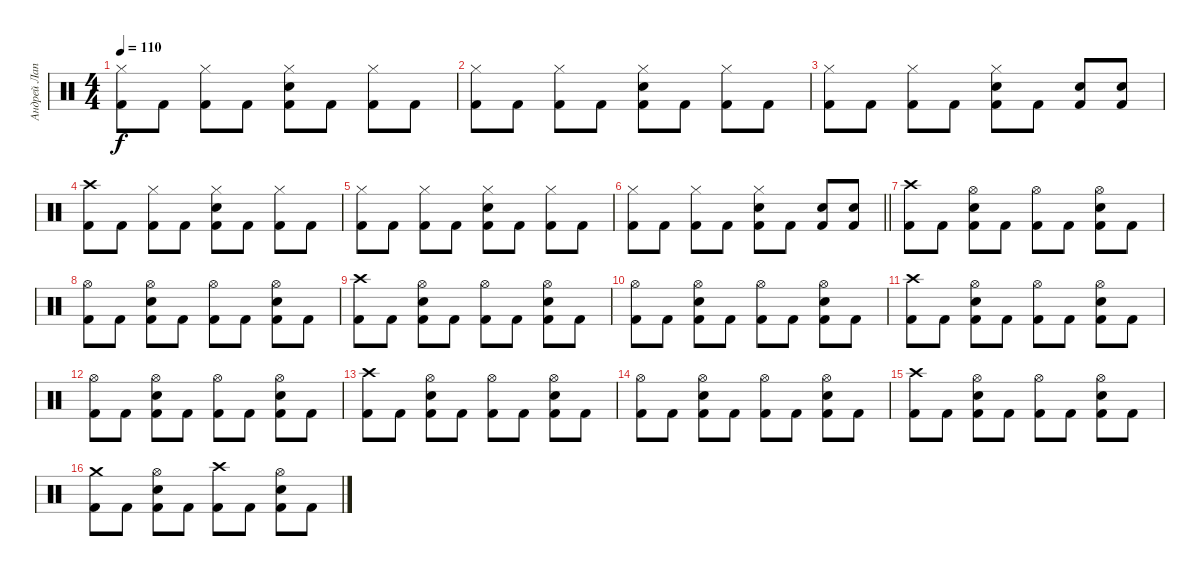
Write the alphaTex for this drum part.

\track ("Андрей Лаптев" "Андрей Лап") {instrument percussion}
\staff {score}
\articulation defaults
\ts (4 4)
\tempo 110
\clef neutral
\ks c
("Hi-Hat (closed)" "Kick (hit) 2").8{dy f} "Kick (hit) 2".8 ("Hi-Hat (closed)" "Kick (hit) 2").8 "Kick (hit) 2".8 ("Hi-Hat (closed)" "Electric Snare (hit)" "Kick (hit) 2").8 "Kick (hit) 2".8 ("Hi-Hat (closed)" "Kick (hit) 2").8 "Kick (hit) 2".8 |
("Hi-Hat (closed)" "Kick (hit) 2").8 "Kick (hit) 2".8 ("Hi-Hat (closed)" "Kick (hit) 2").8 "Kick (hit) 2".8 ("Hi-Hat (closed)" "Electric Snare (hit)" "Kick (hit) 2").8 "Kick (hit) 2".8 ("Hi-Hat (closed)" "Kick (hit) 2").8 "Kick (hit) 2".8 |
("Hi-Hat (closed)" "Kick (hit) 2").8 "Kick (hit) 2".8 ("Hi-Hat (closed)" "Kick (hit) 2").8 "Kick (hit) 2".8 ("Hi-Hat (closed)" "Electric Snare (hit)" "Kick (hit) 2").8 "Kick (hit) 2".8 ("Electric Snare (hit)" "Kick (hit) 2").8 ("Electric Snare (hit)" "Kick (hit) 2").8 |
("Crash high (hit)" "Kick (hit) 2").8 "Kick (hit) 2".8 ("Hi-Hat (closed)" "Kick (hit) 2").8 "Kick (hit) 2".8 ("Hi-Hat (closed)" "Electric Snare (hit)" "Kick (hit) 2").8 "Kick (hit) 2".8 ("Hi-Hat (closed)" "Kick (hit) 2").8 "Kick (hit) 2".8 |
("Hi-Hat (closed)" "Kick (hit) 2").8 "Kick (hit) 2".8 ("Hi-Hat (closed)" "Kick (hit) 2").8 "Kick (hit) 2".8 ("Hi-Hat (closed)" "Electric Snare (hit)" "Kick (hit) 2").8 "Kick (hit) 2".8 ("Hi-Hat (closed)" "Kick (hit) 2").8 "Kick (hit) 2".8 |
\barLineRight lightlight
("Hi-Hat (closed)" "Kick (hit) 2").8 "Kick (hit) 2".8 ("Hi-Hat (closed)" "Kick (hit) 2").8 "Kick (hit) 2".8 ("Hi-Hat (closed)" "Electric Snare (hit)" "Kick (hit) 2").8 "Kick (hit) 2".8 ("Electric Snare (hit)" "Kick (hit) 2").8 ("Electric Snare (hit)" "Kick (hit) 2").8 |
\section ("" "")
("Crash high (hit)" "Kick (hit) 2").8 "Kick (hit) 2".8 ("Hi-Hat (open)" "Electric Snare (hit)" "Kick (hit) 2").8 "Kick (hit) 2".8 ("Hi-Hat (open)" "Kick (hit) 2").8 "Kick (hit) 2".8 ("Hi-Hat (open)" "Electric Snare (hit)" "Kick (hit) 2").8 "Kick (hit) 2".8 |
("Hi-Hat (open)" "Kick (hit) 2").8 "Kick (hit) 2".8 ("Hi-Hat (open)" "Electric Snare (hit)" "Kick (hit) 2").8 "Kick (hit) 2".8 ("Hi-Hat (open)" "Kick (hit) 2").8 "Kick (hit) 2".8 ("Hi-Hat (open)" "Electric Snare (hit)" "Kick (hit) 2").8 "Kick (hit) 2".8 |
("Crash high (hit)" "Kick (hit) 2").8 "Kick (hit) 2".8 ("Hi-Hat (open)" "Electric Snare (hit)" "Kick (hit) 2").8 "Kick (hit) 2".8 ("Hi-Hat (open)" "Kick (hit) 2").8 "Kick (hit) 2".8 ("Hi-Hat (open)" "Electric Snare (hit)" "Kick (hit) 2").8 "Kick (hit) 2".8 |
("Hi-Hat (open)" "Kick (hit) 2").8 "Kick (hit) 2".8 ("Hi-Hat (open)" "Electric Snare (hit)" "Kick (hit) 2").8 "Kick (hit) 2".8 ("Hi-Hat (open)" "Kick (hit) 2").8 "Kick (hit) 2".8 ("Hi-Hat (open)" "Electric Snare (hit)" "Kick (hit) 2").8 "Kick (hit) 2".8 |
("Crash high (hit)" "Kick (hit) 2").8 "Kick (hit) 2".8 ("Hi-Hat (open)" "Electric Snare (hit)" "Kick (hit) 2").8 "Kick (hit) 2".8 ("Hi-Hat (open)" "Kick (hit) 2").8 "Kick (hit) 2".8 ("Hi-Hat (open)" "Electric Snare (hit)" "Kick (hit) 2").8 "Kick (hit) 2".8 |
("Hi-Hat (open)" "Kick (hit) 2").8 "Kick (hit) 2".8 ("Hi-Hat (open)" "Electric Snare (hit)" "Kick (hit) 2").8 "Kick (hit) 2".8 ("Hi-Hat (open)" "Kick (hit) 2").8 "Kick (hit) 2".8 ("Hi-Hat (open)" "Electric Snare (hit)" "Kick (hit) 2").8 "Kick (hit) 2".8 |
("Crash high (hit)" "Kick (hit) 2").8 "Kick (hit) 2".8 ("Hi-Hat (open)" "Electric Snare (hit)" "Kick (hit) 2").8 "Kick (hit) 2".8 ("Hi-Hat (open)" "Kick (hit) 2").8 "Kick (hit) 2".8 ("Hi-Hat (open)" "Electric Snare (hit)" "Kick (hit) 2").8 "Kick (hit) 2".8 |
("Hi-Hat (open)" "Kick (hit) 2").8 "Kick (hit) 2".8 ("Hi-Hat (open)" "Electric Snare (hit)" "Kick (hit) 2").8 "Kick (hit) 2".8 ("Hi-Hat (open)" "Kick (hit) 2").8 "Kick (hit) 2".8 ("Hi-Hat (open)" "Electric Snare (hit)" "Kick (hit) 2").8 "Kick (hit) 2".8 |
("Crash high (hit)" "Kick (hit) 2").8 "Kick (hit) 2".8 ("Hi-Hat (open)" "Electric Snare (hit)" "Kick (hit) 2").8 "Kick (hit) 2".8 ("Hi-Hat (open)" "Kick (hit) 2").8 "Kick (hit) 2".8 ("Hi-Hat (open)" "Electric Snare (hit)" "Kick (hit) 2").8 "Kick (hit) 2".8 |
("Crash medium (hit)" "Kick (hit) 2").8 "Kick (hit) 2".8 ("Hi-Hat (open)" "Electric Snare (hit)" "Kick (hit) 2").8 "Kick (hit) 2".8 ("Crash high (hit)" "Kick (hit) 2").8 "Kick (hit) 2".8 ("Hi-Hat (open)" "Electric Snare (hit)" "Kick (hit) 2").8 "Kick (hit) 2".8
